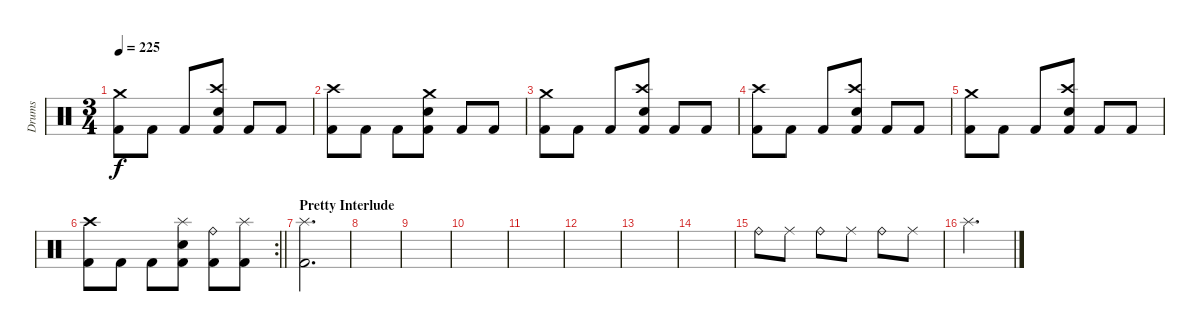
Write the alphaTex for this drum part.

\track ("Drums" "Drums") {instrument percussion}
\staff {score}
\articulation defaults
\ts (3 4)
\tempo 225
\clef neutral
\ks c
("Crash medium (hit)" "Kick (hit) 2").8{dy f} "Kick (hit) 2".8 "Kick (hit) 2".8 ("Crash high (hit)" "Electric Snare (hit)" "Kick (hit) 2").8 "Kick (hit) 2".8 "Kick (hit) 2".8 |
("Crash high (hit)" "Kick (hit) 2").8 "Kick (hit) 2".8 "Kick (hit) 2".8 ("Crash medium (hit)" "Electric Snare (hit)" "Kick (hit) 2").8 "Kick (hit) 2".8 "Kick (hit) 2".8 |
("Crash medium (hit)" "Kick (hit) 2").8 "Kick (hit) 2".8 "Kick (hit) 2".8 ("Crash high (hit)" "Electric Snare (hit)" "Kick (hit) 2").8 "Kick (hit) 2".8 "Kick (hit) 2".8 |
("Crash high (hit)" "Kick (hit) 2").8 "Kick (hit) 2".8 "Kick (hit) 2".8 ("Crash high (hit)" "Electric Snare (hit)" "Kick (hit) 2").8 "Kick (hit) 2".8 "Kick (hit) 2".8 |
("Crash medium (hit)" "Kick (hit) 2").8 "Kick (hit) 2".8 "Kick (hit) 2".8 ("Crash high (hit)" "Electric Snare (hit)" "Kick (hit) 2").8 "Kick (hit) 2".8 "Kick (hit) 2".8 |
\rc 2
\barLineRight lightlight
("Crash high (hit)" "Kick (hit) 2").8 "Kick (hit) 2".8 "Kick (hit) 2".8 ("Splash (hit)" "Electric Snare (hit)" "Kick (hit) 2").8 ("Ride (bell)" "Kick (hit) 2").8 ("Splash (hit)" "Kick (hit) 2").8 |
\section ("" "Pretty Interlude")
("Splash (hit)" "Kick (hit) 2").2{d} |
|
|
|
|
|
|
|
"Ride (bell)".8 "Ride (middle)".8 "Ride (bell)".8 "Ride (middle)".8 "Ride (bell)".8 "Ride (middle)".8 |
"Splash (hit)".2{d}
